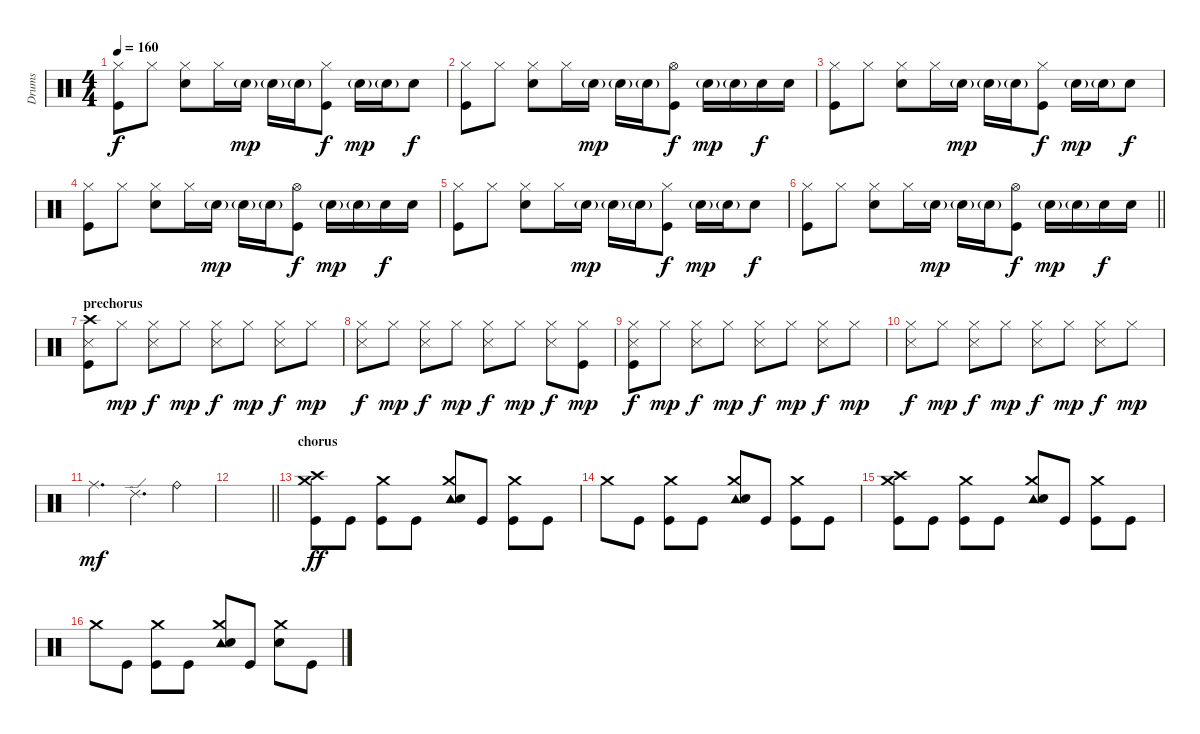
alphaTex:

\track ("Drums" "Drums") {instrument percussion}
\staff {score}
\articulation defaults
\ts (4 4)
\tempo 160
\clef neutral
\ks c
("Hi-Hat (closed)" "Kick (hit)").8{dy f} "Hi-Hat (closed)".8 ("Hi-Hat (closed)" "Electric Snare (hit)").8 "Hi-Hat (closed)".16 "Electric Snare (hit)"{g}.16{dy mp} "Electric Snare (hit)"{g}.16 "Electric Snare (hit)"{g}.16 ("Hi-Hat (closed)" "Kick (hit)").8{dy f} "Electric Snare (hit)"{g}.16{dy mp} "Electric Snare (hit)"{g}.16 "Electric Snare (hit)".8{dy f} |
("Hi-Hat (closed)" "Kick (hit)").8 "Hi-Hat (closed)".8 ("Hi-Hat (closed)" "Electric Snare (hit)").8 "Hi-Hat (closed)".16 "Electric Snare (hit)"{g}.16{dy mp} "Electric Snare (hit)"{g}.16 "Electric Snare (hit)"{g}.16 ("Hi-Hat (open)" "Kick (hit)").8{dy f} "Electric Snare (hit)"{g}.16{dy mp} "Electric Snare (hit)"{g}.16 "Electric Snare (hit)".16{dy f} "Electric Snare (hit)".16 |
("Hi-Hat (closed)" "Kick (hit)").8 "Hi-Hat (closed)".8 ("Hi-Hat (closed)" "Electric Snare (hit)").8 "Hi-Hat (closed)".16 "Electric Snare (hit)"{g}.16{dy mp} "Electric Snare (hit)"{g}.16 "Electric Snare (hit)"{g}.16 ("Hi-Hat (closed)" "Kick (hit)").8{dy f} "Electric Snare (hit)"{g}.16{dy mp} "Electric Snare (hit)"{g}.16 "Electric Snare (hit)".8{dy f} |
("Hi-Hat (closed)" "Kick (hit)").8 "Hi-Hat (closed)".8 ("Hi-Hat (closed)" "Electric Snare (hit)").8 "Hi-Hat (closed)".16 "Electric Snare (hit)"{g}.16{dy mp} "Electric Snare (hit)"{g}.16 "Electric Snare (hit)"{g}.16 ("Hi-Hat (open)" "Kick (hit)").8{dy f} "Electric Snare (hit)"{g}.16{dy mp} "Electric Snare (hit)"{g}.16 "Electric Snare (hit)".16{dy f} "Electric Snare (hit)".16 |
("Hi-Hat (closed)" "Kick (hit)").8 "Hi-Hat (closed)".8 ("Hi-Hat (closed)" "Electric Snare (hit)").8 "Hi-Hat (closed)".16 "Electric Snare (hit)"{g}.16{dy mp} "Electric Snare (hit)"{g}.16 "Electric Snare (hit)"{g}.16 ("Hi-Hat (closed)" "Kick (hit)").8{dy f} "Electric Snare (hit)"{g}.16{dy mp} "Electric Snare (hit)"{g}.16 "Electric Snare (hit)".8{dy f} |
\barLineRight lightlight
("Hi-Hat (closed)" "Kick (hit)").8 "Hi-Hat (closed)".8 ("Hi-Hat (closed)" "Electric Snare (hit)").8 "Hi-Hat (closed)".16 "Electric Snare (hit)"{g}.16{dy mp} "Electric Snare (hit)"{g}.16 "Electric Snare (hit)"{g}.16 ("Hi-Hat (open)" "Kick (hit)").8{dy f} "Electric Snare (hit)"{g}.16{dy mp} "Electric Snare (hit)"{g}.16 "Electric Snare (hit)".16{dy f} "Electric Snare (hit)".16 |
\section ("" "prechorus")
("Crash high (hit)" "Snare (side stick) 3" "Kick (hit)").8 "Hi-Hat (closed)".8{dy mp} ("Hi-Hat (closed)" "Snare (side stick) 3").8{dy f} "Hi-Hat (closed)".8{dy mp} ("Hi-Hat (closed)" "Snare (side stick) 3").8{dy f} "Hi-Hat (closed)".8{dy mp} ("Hi-Hat (closed)" "Snare (side stick) 3").8{dy f} "Hi-Hat (closed)".8{dy mp} |
("Hi-Hat (closed)" "Snare (side stick) 3").8{dy f} "Hi-Hat (closed)".8{dy mp} ("Hi-Hat (closed)" "Snare (side stick) 3").8{dy f} "Hi-Hat (closed)".8{dy mp} ("Hi-Hat (closed)" "Snare (side stick) 3").8{dy f} "Hi-Hat (closed)".8{dy mp} ("Hi-Hat (closed)" "Snare (side stick) 3").8{dy f} ("Hi-Hat (closed)" "Kick (hit)").8{dy mp} |
("Hi-Hat (closed)" "Snare (side stick) 3" "Kick (hit)").8{dy f} "Hi-Hat (closed)".8{dy mp} ("Hi-Hat (closed)" "Snare (side stick) 3").8{dy f} "Hi-Hat (closed)".8{dy mp} ("Hi-Hat (closed)" "Snare (side stick) 3").8{dy f} "Hi-Hat (closed)".8{dy mp} ("Hi-Hat (closed)" "Snare (side stick) 3").8{dy f} "Hi-Hat (closed)".8{dy mp} |
("Hi-Hat (closed)" "Snare (side stick) 3").8{dy f} "Hi-Hat (closed)".8{dy mp} ("Hi-Hat (closed)" "Snare (side stick) 3").8{dy f} "Hi-Hat (closed)".8{dy mp} ("Hi-Hat (closed)" "Snare (side stick) 3").8{dy f} "Hi-Hat (closed)".8{dy mp} ("Hi-Hat (closed)" "Snare (side stick) 3").8{dy f} "Hi-Hat (closed)".8{dy mp} |
"Ride (middle)".4{d dy mf} "Ride (edge) 2".4{d} "Ride (bell)".4 |
\barLineRight lightlight
|
\section ("" "chorus")
("Crash medium (hit)" "Crash high (hit)" "Kick (hit)").8{dy ff} "Kick (hit)".8 ("Crash medium (hit)" "Kick (hit)").8 "Kick (hit)".8 ("Tambourine (hit)" "Crash medium (hit)" "Electric Snare (hit)").8 "Kick (hit)".8 ("Crash medium (hit)" "Kick (hit)").8 "Kick (hit)".8 |
"Crash medium (hit)".8 "Kick (hit)".8 ("Crash medium (hit)" "Kick (hit)").8 "Kick (hit)".8 ("Tambourine (hit)" "Crash medium (hit)" "Electric Snare (hit)").8 "Kick (hit)".8 ("Crash medium (hit)" "Kick (hit)").8 "Kick (hit)".8 |
("Crash medium (hit)" "Crash high (hit)" "Kick (hit)").8 "Kick (hit)".8 ("Crash medium (hit)" "Kick (hit)").8 "Kick (hit)".8 ("Tambourine (hit)" "Crash medium (hit)" "Electric Snare (hit)").8 "Kick (hit)".8 ("Crash medium (hit)" "Kick (hit)").8 "Kick (hit)".8 |
"Crash medium (hit)".8 "Kick (hit)".8 ("Crash medium (hit)" "Kick (hit)").8 "Kick (hit)".8 ("Tambourine (hit)" "Crash medium (hit)" "Electric Snare (hit)").8 "Kick (hit)".8 ("Crash medium (hit)" "Electric Snare (hit)").8 "Kick (hit)".8
